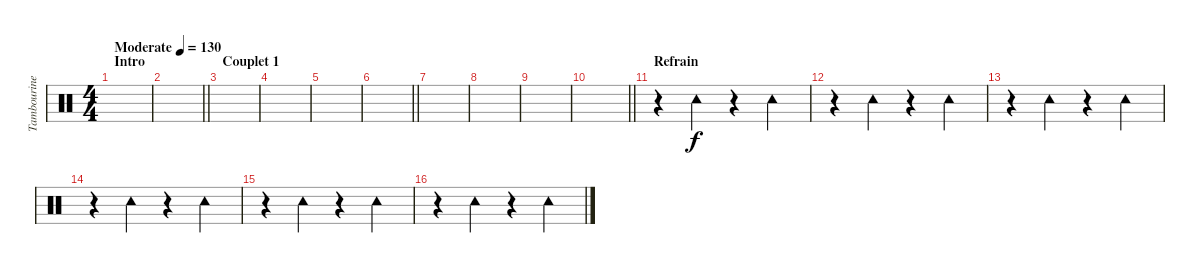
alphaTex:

\track ("Tambourine" "Tambourine") {instrument percussion}
\staff {score}
\articulation defaults
\ts (4 4)
\section ("" "Intro")
\tempo (130 "Moderate")
\clef neutral
\ks c
|
\barLineRight lightlight
|
\section ("" "Couplet 1")
|
|
|
\barLineRight lightlight
|
|
|
|
\barLineRight lightlight
|
\section ("" "Refrain")
r.4 "Tambourine (hit)".4 r.4 "Tambourine (hit)".4 |
r.4 "Tambourine (hit)".4 r.4 "Tambourine (hit)".4 |
r.4 "Tambourine (hit)".4 r.4 "Tambourine (hit)".4 |
r.4 "Tambourine (hit)".4 r.4 "Tambourine (hit)".4 |
r.4 "Tambourine (hit)".4 r.4 "Tambourine (hit)".4 |
r.4 "Tambourine (hit)".4 r.4 "Tambourine (hit)".4
